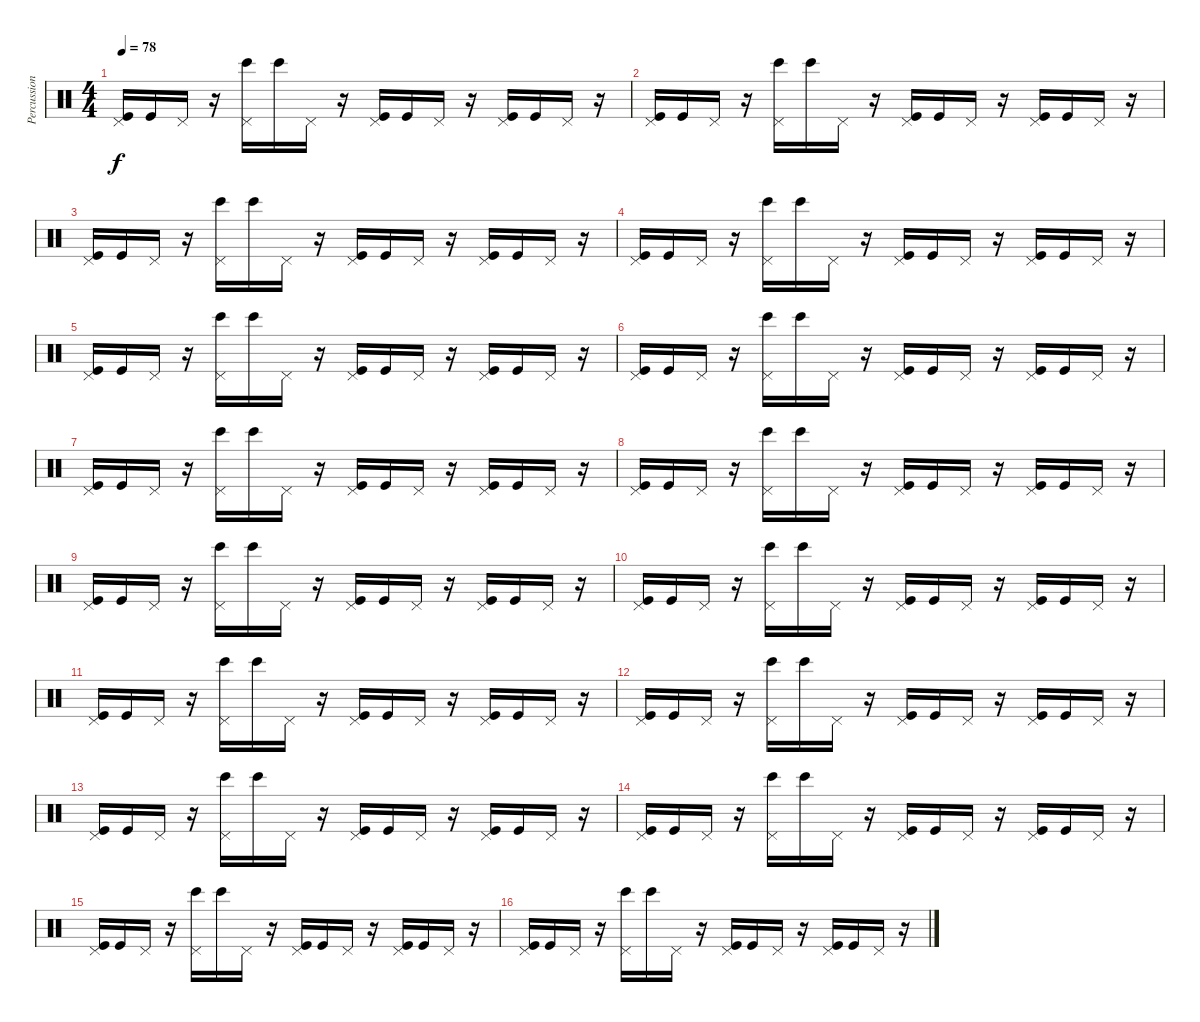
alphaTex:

\track ("Percussions" "Percussion") {instrument percussion}
\staff {score}
\articulation defaults
\ts (4 4)
\tempo 78
\clef neutral
\ks c
("Kick (hit)" "Pedal Hi-Hat (hit)").16{dy f volume 0} "Kick (hit)".16{volume 0} "Pedal Hi-Hat (hit)".16{volume 1} r.16 ("Bongo High (hit)" "Pedal Hi-Hat (hit)").16{volume 1} "Bongo High (hit)".16{volume 1} "Pedal Hi-Hat (hit)".16{volume 2} r.16 ("Kick (hit)" "Pedal Hi-Hat (hit)").16{volume 2} "Kick (hit)".16{volume 2} "Pedal Hi-Hat (hit)".16{volume 3} r.16 ("Kick (hit)" "Pedal Hi-Hat (hit)").16{volume 3} "Kick (hit)".16{volume 3} "Pedal Hi-Hat (hit)".16{volume 4} r.16 |
("Kick (hit)" "Pedal Hi-Hat (hit)").16{volume 4} "Kick (hit)".16{volume 4} "Pedal Hi-Hat (hit)".16{volume 5} r.16 ("Bongo High (hit)" "Pedal Hi-Hat (hit)").16{volume 5} "Bongo High (hit)".16{volume 5} "Pedal Hi-Hat (hit)".16{volume 6} r.16 ("Kick (hit)" "Pedal Hi-Hat (hit)").16{volume 6} "Kick (hit)".16{volume 6} "Pedal Hi-Hat (hit)".16{volume 7} r.16 ("Kick (hit)" "Pedal Hi-Hat (hit)").16{volume 7} "Kick (hit)".16{volume 7} "Pedal Hi-Hat (hit)".16{volume 8} r.16 |
("Kick (hit)" "Pedal Hi-Hat (hit)").16{volume 8} "Kick (hit)".16{volume 8} "Pedal Hi-Hat (hit)".16{volume 9} r.16 ("Bongo High (hit)" "Pedal Hi-Hat (hit)").16{volume 9} "Bongo High (hit)".16{volume 9} "Pedal Hi-Hat (hit)".16 r.16 ("Kick (hit)" "Pedal Hi-Hat (hit)").16 "Kick (hit)".16 "Pedal Hi-Hat (hit)".16 r.16 ("Kick (hit)" "Pedal Hi-Hat (hit)").16 "Kick (hit)".16 "Pedal Hi-Hat (hit)".16 r.16 |
("Kick (hit)" "Pedal Hi-Hat (hit)").16 "Kick (hit)".16 "Pedal Hi-Hat (hit)".16 r.16 ("Bongo High (hit)" "Pedal Hi-Hat (hit)").16 "Bongo High (hit)".16 "Pedal Hi-Hat (hit)".16 r.16 ("Kick (hit)" "Pedal Hi-Hat (hit)").16 "Kick (hit)".16 "Pedal Hi-Hat (hit)".16 r.16 ("Kick (hit)" "Pedal Hi-Hat (hit)").16 "Kick (hit)".16 "Pedal Hi-Hat (hit)".16 r.16 |
("Kick (hit)" "Pedal Hi-Hat (hit)").16 "Kick (hit)".16 "Pedal Hi-Hat (hit)".16 r.16 ("Bongo High (hit)" "Pedal Hi-Hat (hit)").16 "Bongo High (hit)".16 "Pedal Hi-Hat (hit)".16 r.16 ("Kick (hit)" "Pedal Hi-Hat (hit)").16 "Kick (hit)".16 "Pedal Hi-Hat (hit)".16 r.16 ("Kick (hit)" "Pedal Hi-Hat (hit)").16 "Kick (hit)".16 "Pedal Hi-Hat (hit)".16 r.16 |
("Kick (hit)" "Pedal Hi-Hat (hit)").16 "Kick (hit)".16 "Pedal Hi-Hat (hit)".16 r.16 ("Bongo High (hit)" "Pedal Hi-Hat (hit)").16 "Bongo High (hit)".16 "Pedal Hi-Hat (hit)".16 r.16 ("Kick (hit)" "Pedal Hi-Hat (hit)").16 "Kick (hit)".16 "Pedal Hi-Hat (hit)".16 r.16 ("Kick (hit)" "Pedal Hi-Hat (hit)").16 "Kick (hit)".16 "Pedal Hi-Hat (hit)".16 r.16 |
("Kick (hit)" "Pedal Hi-Hat (hit)").16 "Kick (hit)".16 "Pedal Hi-Hat (hit)".16 r.16 ("Bongo High (hit)" "Pedal Hi-Hat (hit)").16 "Bongo High (hit)".16 "Pedal Hi-Hat (hit)".16 r.16 ("Kick (hit)" "Pedal Hi-Hat (hit)").16 "Kick (hit)".16 "Pedal Hi-Hat (hit)".16 r.16 ("Kick (hit)" "Pedal Hi-Hat (hit)").16 "Kick (hit)".16 "Pedal Hi-Hat (hit)".16 r.16 |
("Kick (hit)" "Pedal Hi-Hat (hit)").16 "Kick (hit)".16 "Pedal Hi-Hat (hit)".16 r.16 ("Bongo High (hit)" "Pedal Hi-Hat (hit)").16 "Bongo High (hit)".16 "Pedal Hi-Hat (hit)".16 r.16 ("Kick (hit)" "Pedal Hi-Hat (hit)").16 "Kick (hit)".16 "Pedal Hi-Hat (hit)".16 r.16 ("Kick (hit)" "Pedal Hi-Hat (hit)").16 "Kick (hit)".16 "Pedal Hi-Hat (hit)".16 r.16 |
("Kick (hit)" "Pedal Hi-Hat (hit)").16 "Kick (hit)".16 "Pedal Hi-Hat (hit)".16 r.16 ("Bongo High (hit)" "Pedal Hi-Hat (hit)").16 "Bongo High (hit)".16 "Pedal Hi-Hat (hit)".16 r.16 ("Kick (hit)" "Pedal Hi-Hat (hit)").16 "Kick (hit)".16 "Pedal Hi-Hat (hit)".16 r.16 ("Kick (hit)" "Pedal Hi-Hat (hit)").16 "Kick (hit)".16 "Pedal Hi-Hat (hit)".16 r.16 |
("Kick (hit)" "Pedal Hi-Hat (hit)").16 "Kick (hit)".16 "Pedal Hi-Hat (hit)".16 r.16 ("Bongo High (hit)" "Pedal Hi-Hat (hit)").16 "Bongo High (hit)".16 "Pedal Hi-Hat (hit)".16 r.16 ("Kick (hit)" "Pedal Hi-Hat (hit)").16 "Kick (hit)".16 "Pedal Hi-Hat (hit)".16 r.16 ("Kick (hit)" "Pedal Hi-Hat (hit)").16 "Kick (hit)".16 "Pedal Hi-Hat (hit)".16 r.16 |
("Kick (hit)" "Pedal Hi-Hat (hit)").16 "Kick (hit)".16 "Pedal Hi-Hat (hit)".16 r.16 ("Bongo High (hit)" "Pedal Hi-Hat (hit)").16 "Bongo High (hit)".16 "Pedal Hi-Hat (hit)".16 r.16 ("Kick (hit)" "Pedal Hi-Hat (hit)").16 "Kick (hit)".16 "Pedal Hi-Hat (hit)".16 r.16 ("Kick (hit)" "Pedal Hi-Hat (hit)").16 "Kick (hit)".16 "Pedal Hi-Hat (hit)".16 r.16 |
("Kick (hit)" "Pedal Hi-Hat (hit)").16 "Kick (hit)".16 "Pedal Hi-Hat (hit)".16 r.16 ("Bongo High (hit)" "Pedal Hi-Hat (hit)").16 "Bongo High (hit)".16 "Pedal Hi-Hat (hit)".16 r.16 ("Kick (hit)" "Pedal Hi-Hat (hit)").16 "Kick (hit)".16 "Pedal Hi-Hat (hit)".16 r.16 ("Kick (hit)" "Pedal Hi-Hat (hit)").16 "Kick (hit)".16 "Pedal Hi-Hat (hit)".16 r.16 |
("Kick (hit)" "Pedal Hi-Hat (hit)").16 "Kick (hit)".16 "Pedal Hi-Hat (hit)".16 r.16 ("Bongo High (hit)" "Pedal Hi-Hat (hit)").16 "Bongo High (hit)".16 "Pedal Hi-Hat (hit)".16 r.16 ("Kick (hit)" "Pedal Hi-Hat (hit)").16 "Kick (hit)".16 "Pedal Hi-Hat (hit)".16 r.16 ("Kick (hit)" "Pedal Hi-Hat (hit)").16 "Kick (hit)".16 "Pedal Hi-Hat (hit)".16 r.16 |
("Kick (hit)" "Pedal Hi-Hat (hit)").16 "Kick (hit)".16 "Pedal Hi-Hat (hit)".16 r.16 ("Bongo High (hit)" "Pedal Hi-Hat (hit)").16 "Bongo High (hit)".16 "Pedal Hi-Hat (hit)".16 r.16 ("Kick (hit)" "Pedal Hi-Hat (hit)").16 "Kick (hit)".16 "Pedal Hi-Hat (hit)".16 r.16 ("Kick (hit)" "Pedal Hi-Hat (hit)").16 "Kick (hit)".16 "Pedal Hi-Hat (hit)".16 r.16 |
("Kick (hit)" "Pedal Hi-Hat (hit)").16 "Kick (hit)".16 "Pedal Hi-Hat (hit)".16 r.16 ("Bongo High (hit)" "Pedal Hi-Hat (hit)").16 "Bongo High (hit)".16 "Pedal Hi-Hat (hit)".16 r.16 ("Kick (hit)" "Pedal Hi-Hat (hit)").16 "Kick (hit)".16 "Pedal Hi-Hat (hit)".16 r.16 ("Kick (hit)" "Pedal Hi-Hat (hit)").16 "Kick (hit)".16 "Pedal Hi-Hat (hit)".16 r.16 |
("Kick (hit)" "Pedal Hi-Hat (hit)").16 "Kick (hit)".16 "Pedal Hi-Hat (hit)".16 r.16 ("Bongo High (hit)" "Pedal Hi-Hat (hit)").16 "Bongo High (hit)".16 "Pedal Hi-Hat (hit)".16 r.16 ("Kick (hit)" "Pedal Hi-Hat (hit)").16 "Kick (hit)".16 "Pedal Hi-Hat (hit)".16 r.16 ("Kick (hit)" "Pedal Hi-Hat (hit)").16 "Kick (hit)".16 "Pedal Hi-Hat (hit)".16 r.16
